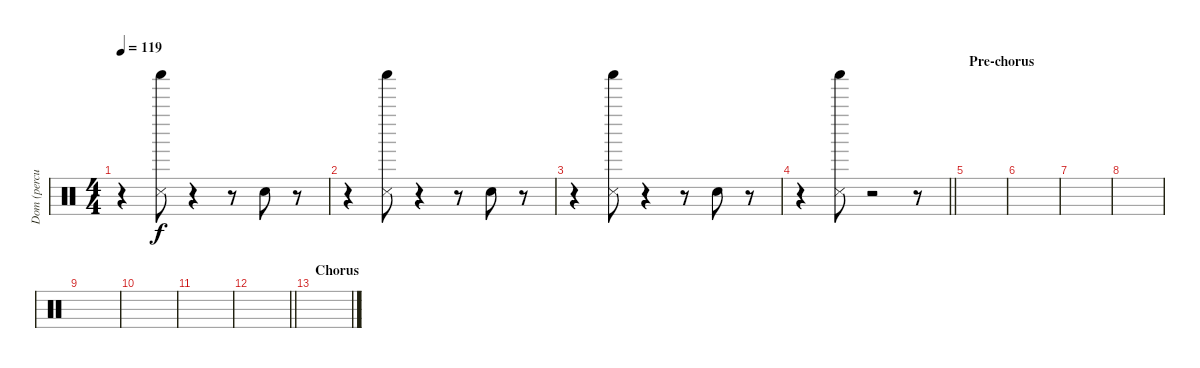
\track ("Dom (percussions)" "Dom (percu") {instrument percussion}
\staff {score}
\articulation defaults
\ts (4 4)
\tempo 119
\clef neutral
\ks c
r.4{dy f} ("Shaker (hit)" "Metronome (hit)").8 r.4 r.8 "Hand Clap (hit)".8 r.8 |
r.4 ("Shaker (hit)" "Metronome (hit)").8 r.4 r.8 "Hand Clap (hit)".8 r.8 |
r.4 ("Shaker (hit)" "Metronome (hit)").8 r.4 r.8 "Hand Clap (hit)".8 r.8 |
\barLineRight lightlight
r.4 ("Shaker (hit)" "Metronome (hit)").8 r.2 r.8 |
\section ("" "Pre-chorus")
|
|
|
|
|
|
|
\barLineRight lightlight
|
\section ("" "Chorus")
